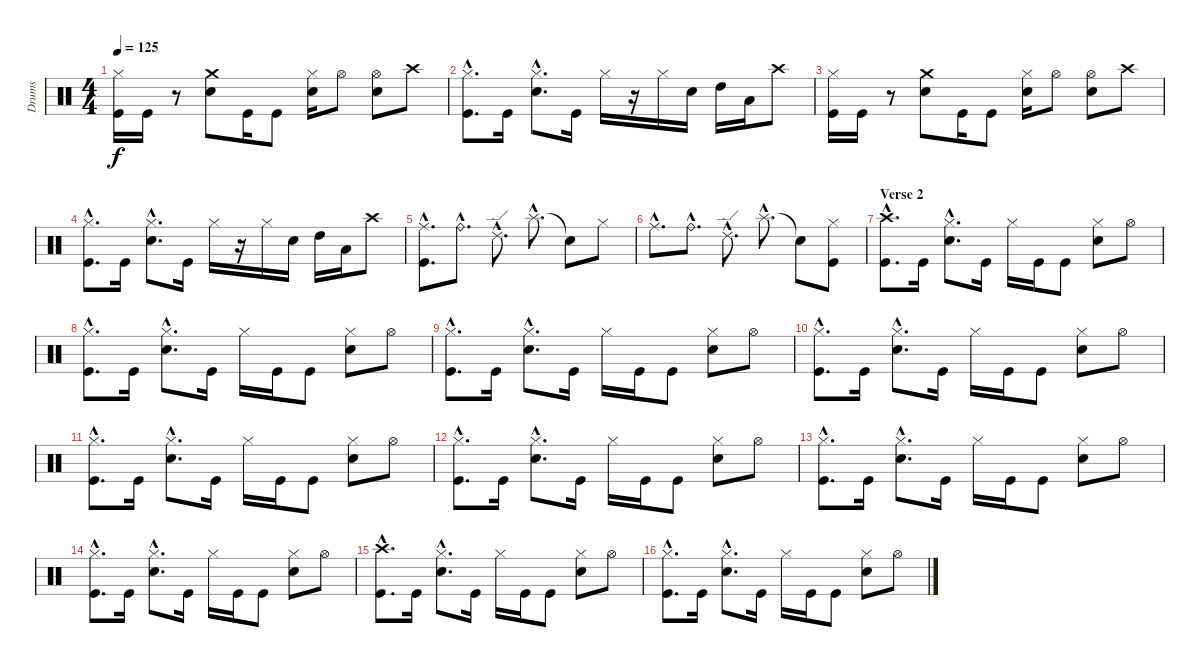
\track ("Drums" "Drums") {instrument percussion}
\staff {score}
\articulation defaults
\ts (4 4)
\tempo 125
\clef neutral
\ks c
("Hi-Hat (closed)" "Kick (hit)").16{dy f} "Kick (hit)".16 r.8 ("Crash medium (hit)" "Electric Snare (hit)").8 "Kick (hit)".16 "Kick (hit)".8 ("Hi-Hat (closed)" "Electric Snare (hit)").16 "Hi-Hat (open)".8 ("Hi-Hat (open)" "Electric Snare (hit)").8 "Crash high (hit)".8 |
("Hi-Hat (closed)"{hac} "Kick (hit)"{hac}).8{d} "Kick (hit)".16 ("Hi-Hat (closed)"{hac} "Electric Snare (hit)"{hac}).8{d} "Kick (hit)".16 "Hi-Hat (closed)".16 r.16 "Hi-Hat (closed)".16 "Electric Snare (hit)".16 "High Tom (hit)".16 "Low Tom (hit)".16 "Crash high (hit)".8 |
("Hi-Hat (closed)" "Kick (hit)").16 "Kick (hit)".16 r.8 ("Crash medium (hit)" "Electric Snare (hit)").8 "Kick (hit)".16 "Kick (hit)".8 ("Hi-Hat (closed)" "Electric Snare (hit)").16 "Hi-Hat (open)".8 ("Hi-Hat (open)" "Electric Snare (hit)").8 "Crash high (hit)".8 |
("Hi-Hat (closed)"{hac} "Kick (hit)"{hac}).8{d} "Kick (hit)".16 ("Hi-Hat (closed)"{hac} "Electric Snare (hit)"{hac}).8{d} "Kick (hit)".16 "Hi-Hat (closed)".16 r.16 "Hi-Hat (closed)".16 "Electric Snare (hit)".16 "High Tom (hit)".16 "Low Tom (hit)".16 "Crash high (hit)".8 |
("Ride (middle)"{hac} "Kick (hit)"{hac}).8{d} "Ride (bell)"{hac}.8{d} "Ride (edge) 2"{hac}.8{d} "Splash (hit)"{hac}.8{d} "Snare (hit)"{t}.8 "Hi-Hat (closed)".8 |
"Ride (middle)"{hac}.8{d} "Ride (bell)"{hac}.8{d} "Ride (edge) 2"{hac}.8{d} "Splash (hit)"{hac}.8{d} "Snare (hit)"{t}.8 ("Hi-Hat (closed)" "Kick (hit)").8 |
\section ("" "Verse 2")
("Crash high (hit)"{hac} "Kick (hit)"{hac}).8{d} "Kick (hit)".16 ("Hi-Hat (closed)"{hac} "Electric Snare (hit)"{hac}).8{d} "Kick (hit)".16 "Hi-Hat (closed)".16 "Kick (hit)".16 "Kick (hit)".8 ("Hi-Hat (closed)" "Electric Snare (hit)").8 "Hi-Hat (open)".8 |
("Hi-Hat (closed)"{hac} "Kick (hit)"{hac}).8{d} "Kick (hit)".16 ("Hi-Hat (closed)"{hac} "Electric Snare (hit)"{hac}).8{d} "Kick (hit)".16 "Hi-Hat (closed)".16 "Kick (hit)".16 "Kick (hit)".8 ("Hi-Hat (closed)" "Electric Snare (hit)").8 "Hi-Hat (open)".8 |
("Hi-Hat (closed)"{hac} "Kick (hit)"{hac}).8{d} "Kick (hit)".16 ("Hi-Hat (closed)"{hac} "Electric Snare (hit)"{hac}).8{d} "Kick (hit)".16 "Hi-Hat (closed)".16 "Kick (hit)".16 "Kick (hit)".8 ("Hi-Hat (closed)" "Electric Snare (hit)").8 "Hi-Hat (open)".8 |
("Hi-Hat (closed)"{hac} "Kick (hit)"{hac}).8{d} "Kick (hit)".16 ("Hi-Hat (closed)"{hac} "Electric Snare (hit)"{hac}).8{d} "Kick (hit)".16 "Hi-Hat (closed)".16 "Kick (hit)".16 "Kick (hit)".8 ("Hi-Hat (closed)" "Electric Snare (hit)").8 "Hi-Hat (open)".8 |
("Hi-Hat (closed)"{hac} "Kick (hit)"{hac}).8{d} "Kick (hit)".16 ("Hi-Hat (closed)"{hac} "Electric Snare (hit)"{hac}).8{d} "Kick (hit)".16 "Hi-Hat (closed)".16 "Kick (hit)".16 "Kick (hit)".8 ("Hi-Hat (closed)" "Electric Snare (hit)").8 "Hi-Hat (open)".8 |
("Hi-Hat (closed)"{hac} "Kick (hit)"{hac}).8{d} "Kick (hit)".16 ("Hi-Hat (closed)"{hac} "Electric Snare (hit)"{hac}).8{d} "Kick (hit)".16 "Hi-Hat (closed)".16 "Kick (hit)".16 "Kick (hit)".8 ("Hi-Hat (closed)" "Electric Snare (hit)").8 "Hi-Hat (open)".8 |
("Hi-Hat (closed)"{hac} "Kick (hit)"{hac}).8{d} "Kick (hit)".16 ("Hi-Hat (closed)"{hac} "Electric Snare (hit)"{hac}).8{d} "Kick (hit)".16 "Hi-Hat (closed)".16 "Kick (hit)".16 "Kick (hit)".8 ("Hi-Hat (closed)" "Electric Snare (hit)").8 "Hi-Hat (open)".8 |
("Hi-Hat (closed)"{hac} "Kick (hit)"{hac}).8{d} "Kick (hit)".16 ("Hi-Hat (closed)"{hac} "Electric Snare (hit)"{hac}).8{d} "Kick (hit)".16 "Hi-Hat (closed)".16 "Kick (hit)".16 "Kick (hit)".8 ("Hi-Hat (closed)" "Electric Snare (hit)").8 "Hi-Hat (open)".8 |
("Crash high (hit)"{hac} "Kick (hit)"{hac}).8{d} "Kick (hit)".16 ("Hi-Hat (closed)"{hac} "Electric Snare (hit)"{hac}).8{d} "Kick (hit)".16 "Hi-Hat (closed)".16 "Kick (hit)".16 "Kick (hit)".8 ("Hi-Hat (closed)" "Electric Snare (hit)").8 "Hi-Hat (open)".8 |
("Hi-Hat (closed)"{hac} "Kick (hit)"{hac}).8{d} "Kick (hit)".16 ("Hi-Hat (closed)"{hac} "Electric Snare (hit)"{hac}).8{d} "Kick (hit)".16 "Hi-Hat (closed)".16 "Kick (hit)".16 "Kick (hit)".8 ("Hi-Hat (closed)" "Electric Snare (hit)").8 "Hi-Hat (open)".8
